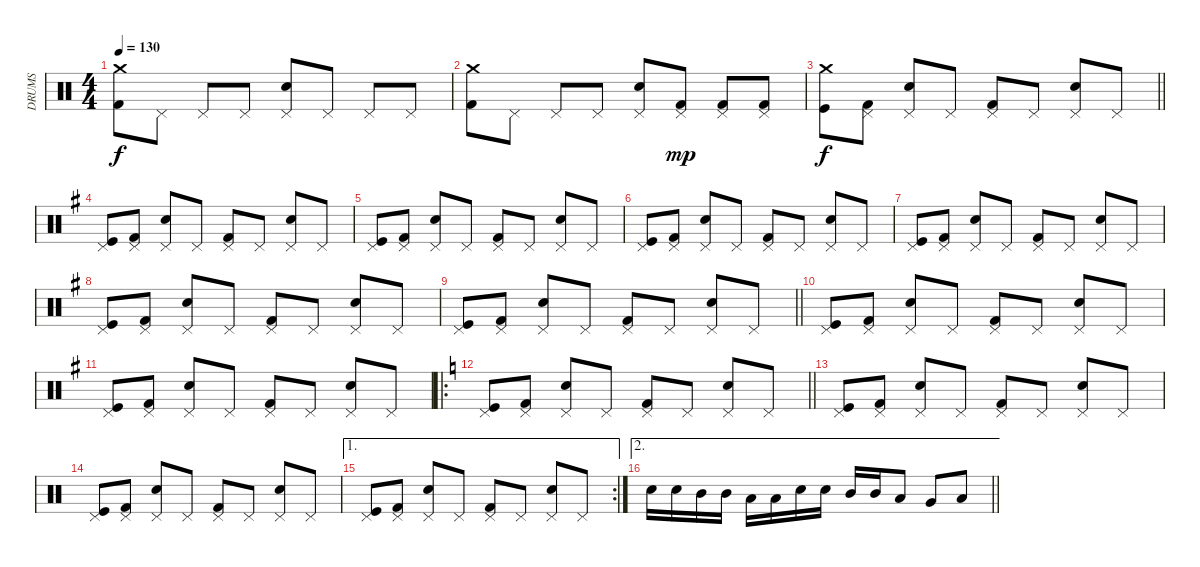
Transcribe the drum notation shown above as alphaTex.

\track ("DRUMS" "DRUMS") {instrument percussion}
\staff {score}
\articulation defaults
\ts (4 4)
\tempo 130
\clef neutral
\ks c
("Crash medium (hit)" "Kick (hit) 2").8{dy f} "Pedal Hi-Hat (hit)".8 "Pedal Hi-Hat (hit)".8 "Pedal Hi-Hat (hit)".8 ("Pedal Hi-Hat (hit)" "Snare (hit) 2").8 "Pedal Hi-Hat (hit)".8 "Pedal Hi-Hat (hit)".8 "Pedal Hi-Hat (hit)".8 |
("Crash medium (hit)" "Kick (hit) 2").8 "Pedal Hi-Hat (hit)".8 "Pedal Hi-Hat (hit)".8 "Pedal Hi-Hat (hit)".8 ("Pedal Hi-Hat (hit)" "Snare (hit) 2").8 ("Pedal Hi-Hat (hit)" "Kick (hit) 2").8{dy mp} ("Pedal Hi-Hat (hit)" "Kick (hit) 2").8 ("Pedal Hi-Hat (hit)" "Kick (hit) 2").8 |
\barLineRight lightlight
("Crash medium (hit)" "Kick (hit)").8{dy f} ("Pedal Hi-Hat (hit)" "Kick (hit) 2").8 ("Pedal Hi-Hat (hit)" "Snare (hit) 2").8 "Pedal Hi-Hat (hit)".8 ("Pedal Hi-Hat (hit)" "Kick (hit) 2").8 "Pedal Hi-Hat (hit)".8 ("Pedal Hi-Hat (hit)" "Snare (hit) 2").8 "Pedal Hi-Hat (hit)".8 |
\ks g
("Pedal Hi-Hat (hit)" "Kick (hit)").8 ("Pedal Hi-Hat (hit)" "Kick (hit) 2").8 ("Pedal Hi-Hat (hit)" "Snare (hit) 2").8 "Pedal Hi-Hat (hit)".8 ("Pedal Hi-Hat (hit)" "Kick (hit) 2").8 "Pedal Hi-Hat (hit)".8 ("Pedal Hi-Hat (hit)" "Snare (hit) 2").8 "Pedal Hi-Hat (hit)".8 |
("Pedal Hi-Hat (hit)" "Kick (hit)").8 ("Pedal Hi-Hat (hit)" "Kick (hit) 2").8 ("Pedal Hi-Hat (hit)" "Snare (hit) 2").8 "Pedal Hi-Hat (hit)".8 ("Pedal Hi-Hat (hit)" "Kick (hit) 2").8 "Pedal Hi-Hat (hit)".8 ("Pedal Hi-Hat (hit)" "Snare (hit) 2").8 "Pedal Hi-Hat (hit)".8 |
("Pedal Hi-Hat (hit)" "Kick (hit)").8 ("Pedal Hi-Hat (hit)" "Kick (hit) 2").8 ("Pedal Hi-Hat (hit)" "Snare (hit) 2").8 "Pedal Hi-Hat (hit)".8 ("Pedal Hi-Hat (hit)" "Kick (hit) 2").8 "Pedal Hi-Hat (hit)".8 ("Pedal Hi-Hat (hit)" "Snare (hit) 2").8 "Pedal Hi-Hat (hit)".8 |
("Pedal Hi-Hat (hit)" "Kick (hit)").8 ("Pedal Hi-Hat (hit)" "Kick (hit) 2").8 ("Pedal Hi-Hat (hit)" "Snare (hit) 2").8 "Pedal Hi-Hat (hit)".8 ("Pedal Hi-Hat (hit)" "Kick (hit) 2").8 "Pedal Hi-Hat (hit)".8 ("Pedal Hi-Hat (hit)" "Snare (hit) 2").8 "Pedal Hi-Hat (hit)".8 |
("Pedal Hi-Hat (hit)" "Kick (hit)").8 ("Pedal Hi-Hat (hit)" "Kick (hit) 2").8 ("Pedal Hi-Hat (hit)" "Snare (hit) 2").8 "Pedal Hi-Hat (hit)".8 ("Pedal Hi-Hat (hit)" "Kick (hit) 2").8 "Pedal Hi-Hat (hit)".8 ("Pedal Hi-Hat (hit)" "Snare (hit) 2").8 "Pedal Hi-Hat (hit)".8 |
\barLineRight lightlight
("Pedal Hi-Hat (hit)" "Kick (hit)").8 ("Pedal Hi-Hat (hit)" "Kick (hit) 2").8 ("Pedal Hi-Hat (hit)" "Snare (hit) 2").8 "Pedal Hi-Hat (hit)".8 ("Pedal Hi-Hat (hit)" "Kick (hit) 2").8 "Pedal Hi-Hat (hit)".8 ("Pedal Hi-Hat (hit)" "Snare (hit) 2").8 "Pedal Hi-Hat (hit)".8 |
("Pedal Hi-Hat (hit)" "Kick (hit)").8 ("Pedal Hi-Hat (hit)" "Kick (hit) 2").8 ("Pedal Hi-Hat (hit)" "Snare (hit) 2").8 "Pedal Hi-Hat (hit)".8 ("Pedal Hi-Hat (hit)" "Kick (hit) 2").8 "Pedal Hi-Hat (hit)".8 ("Pedal Hi-Hat (hit)" "Snare (hit) 2").8 "Pedal Hi-Hat (hit)".8 |
("Pedal Hi-Hat (hit)" "Kick (hit)").8 ("Pedal Hi-Hat (hit)" "Kick (hit) 2").8 ("Pedal Hi-Hat (hit)" "Snare (hit) 2").8 "Pedal Hi-Hat (hit)".8 ("Pedal Hi-Hat (hit)" "Kick (hit) 2").8 "Pedal Hi-Hat (hit)".8 ("Pedal Hi-Hat (hit)" "Snare (hit) 2").8 "Pedal Hi-Hat (hit)".8 |
\ro
\barLineRight lightlight
\ks c
("Pedal Hi-Hat (hit)" "Kick (hit)").8 ("Pedal Hi-Hat (hit)" "Kick (hit) 2").8 ("Pedal Hi-Hat (hit)" "Snare (hit) 2").8 "Pedal Hi-Hat (hit)".8 ("Pedal Hi-Hat (hit)" "Kick (hit) 2").8 "Pedal Hi-Hat (hit)".8 ("Pedal Hi-Hat (hit)" "Snare (hit) 2").8 "Pedal Hi-Hat (hit)".8 |
("Pedal Hi-Hat (hit)" "Kick (hit)").8 ("Pedal Hi-Hat (hit)" "Kick (hit) 2").8 ("Pedal Hi-Hat (hit)" "Snare (hit) 2").8 "Pedal Hi-Hat (hit)".8 ("Pedal Hi-Hat (hit)" "Kick (hit) 2").8 "Pedal Hi-Hat (hit)".8 ("Pedal Hi-Hat (hit)" "Snare (hit) 2").8 "Pedal Hi-Hat (hit)".8 |
("Pedal Hi-Hat (hit)" "Kick (hit)").8 ("Pedal Hi-Hat (hit)" "Kick (hit) 2").8 ("Pedal Hi-Hat (hit)" "Snare (hit) 2").8 "Pedal Hi-Hat (hit)".8 ("Pedal Hi-Hat (hit)" "Kick (hit) 2").8 "Pedal Hi-Hat (hit)".8 ("Pedal Hi-Hat (hit)" "Snare (hit) 2").8 "Pedal Hi-Hat (hit)".8 |
\ae 1
\rc 2
("Pedal Hi-Hat (hit)" "Kick (hit)").8 ("Pedal Hi-Hat (hit)" "Kick (hit) 2").8 ("Pedal Hi-Hat (hit)" "Snare (hit) 2").8 "Pedal Hi-Hat (hit)".8 ("Pedal Hi-Hat (hit)" "Kick (hit) 2").8 "Pedal Hi-Hat (hit)".8 ("Pedal Hi-Hat (hit)" "Snare (hit) 2").8 "Pedal Hi-Hat (hit)".8 |
\ae 2
\barLineRight lightlight "Snare (hit) 2".16 "Snare (hit) 2".16 "Mid Tom (hit)".16 "Mid Tom (hit)".16 "Low Tom (hit)".16 "Low Tom (hit)".16 "Snare (hit) 2".16 "Snare (hit) 2".16 "Mid Tom (hit)".16 "Mid Tom (hit)".16 "Low Tom (hit)".8 "Very Low Tom (hit)".8 "Low Floor Tom (hit)".8
